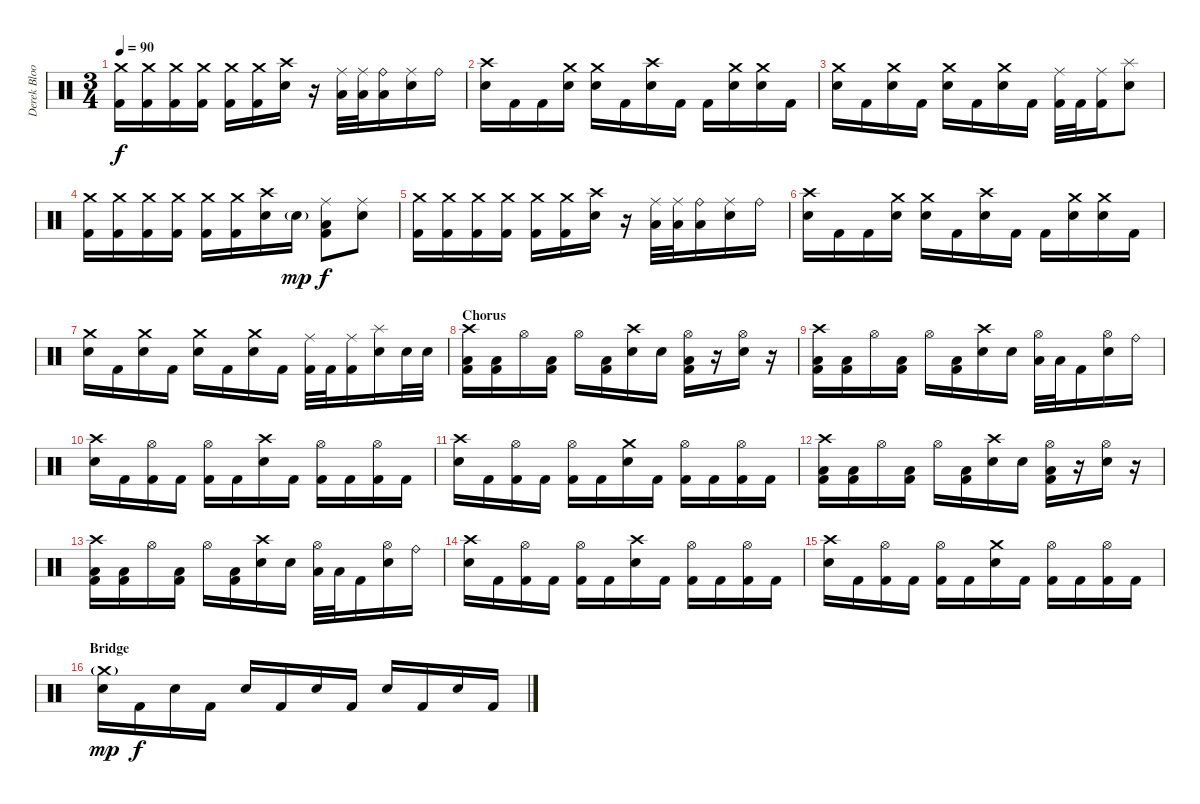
\track ("Derek Bloom (Drums)" "Derek Bloo") {instrument percussion}
\staff {score}
\articulation defaults
\ts (3 4)
\tempo 90
\clef neutral
\ks c
("Crash medium (hit)" "Kick (hit) 2").16{dy f} ("Crash medium (hit)" "Kick (hit) 2").16 ("Crash medium (hit)" "Kick (hit) 2").16 ("Crash medium (hit)" "Kick (hit) 2").16 ("Crash medium (hit)" "Kick (hit) 2").16 ("Crash medium (hit)" "Kick (hit) 2").16 ("Crash high (hit)" "Electric Snare (hit)").16 r.16 ("Ride (middle)" "Low Tom (hit)").32 ("Ride (middle)" "Low Tom (hit)").32 ("Ride (bell)" "Low Tom (hit)").16 ("Ride (middle)" "Electric Snare (hit)").16 "Ride (bell)".16 |
("Crash high (hit)" "Electric Snare (hit)").16 "Kick (hit) 2".16 "Kick (hit) 2".16 ("Crash medium (hit)" "Electric Snare (hit)").16 ("Crash medium (hit)" "Electric Snare (hit)").16 "Kick (hit) 2".16 ("Crash high (hit)" "Electric Snare (hit)").16 "Kick (hit) 2".16 "Kick (hit) 2".16 ("Crash medium (hit)" "Electric Snare (hit)").16 ("Crash medium (hit)" "Electric Snare (hit)").16 "Kick (hit) 2".16 |
("Crash medium (hit)" "Electric Snare (hit)").16 "Kick (hit) 2".16 ("Crash medium (hit)" "Electric Snare (hit)").16 "Kick (hit) 2".16 ("Crash medium (hit)" "Electric Snare (hit)").16 "Kick (hit) 2".16 ("Crash medium (hit)" "Electric Snare (hit)").16 "Kick (hit) 2".16 ("Ride (middle)" "Kick (hit) 2").32 "Kick (hit) 2".32 ("Ride (middle)" "Kick (hit) 2").16 ("Splash (hit)" "Electric Snare (hit)").8 |
("Crash medium (hit)" "Kick (hit) 2").16 ("Crash medium (hit)" "Kick (hit) 2").16 ("Crash medium (hit)" "Kick (hit) 2").16 ("Crash medium (hit)" "Kick (hit) 2").16 ("Crash medium (hit)" "Kick (hit) 2").16 ("Crash medium (hit)" "Kick (hit) 2").16 ("Crash high (hit)" "Electric Snare (hit)").16 "Electric Snare (hit)"{g}.16{dy mp} ("Ride (middle)" "Low Floor Tom (hit)" "Kick (hit) 2").8{dy f} ("Ride (middle)" "Electric Snare (hit)").8 |
("Crash medium (hit)" "Kick (hit) 2").16 ("Crash medium (hit)" "Kick (hit) 2").16 ("Crash medium (hit)" "Kick (hit) 2").16 ("Crash medium (hit)" "Kick (hit) 2").16 ("Crash medium (hit)" "Kick (hit) 2").16 ("Crash medium (hit)" "Kick (hit) 2").16 ("Crash high (hit)" "Electric Snare (hit)").16 r.16 ("Ride (middle)" "Low Tom (hit)").32 ("Ride (middle)" "Low Tom (hit)").32 ("Ride (bell)" "Low Tom (hit)").16 ("Ride (middle)" "Electric Snare (hit)").16 "Ride (bell)".16 |
("Crash high (hit)" "Electric Snare (hit)").16 "Kick (hit) 2".16 "Kick (hit) 2".16 ("Crash medium (hit)" "Electric Snare (hit)").16 ("Crash medium (hit)" "Electric Snare (hit)").16 "Kick (hit) 2".16 ("Crash high (hit)" "Electric Snare (hit)").16 "Kick (hit) 2".16 "Kick (hit) 2".16 ("Crash medium (hit)" "Electric Snare (hit)").16 ("Crash medium (hit)" "Electric Snare (hit)").16 "Kick (hit) 2".16 |
("Crash medium (hit)" "Electric Snare (hit)").16 "Kick (hit) 2".16 ("Crash medium (hit)" "Electric Snare (hit)").16 "Kick (hit) 2".16 ("Crash medium (hit)" "Electric Snare (hit)").16 "Kick (hit) 2".16 ("Crash medium (hit)" "Electric Snare (hit)").16 "Kick (hit) 2".16 ("Ride (middle)" "Kick (hit) 2").32 "Kick (hit) 2".32 ("Ride (middle)" "Kick (hit) 2").16 ("Splash (hit)" "Electric Snare (hit)").16 "Electric Snare (hit)".32 "Electric Snare (hit)".32 |
\section ("" "Chorus")
("Crash high (hit)" "Low Floor Tom (hit)" "Kick (hit) 2").16 ("Low Floor Tom (hit)" "Kick (hit) 2").16 "Hi-Hat (open)".16 ("Low Floor Tom (hit)" "Kick (hit) 2").16 "Hi-Hat (open)".16 ("Low Floor Tom (hit)" "Kick (hit) 2").16 ("Crash high (hit)" "Electric Snare (hit)").16 "Electric Snare (hit)".16 ("Hi-Hat (open)" "Low Floor Tom (hit)" "Kick (hit) 2").16 r.16 ("Hi-Hat (open)" "Electric Snare (hit)").16 r.16 |
("Crash high (hit)" "Low Floor Tom (hit)" "Kick (hit) 2").16 ("Low Floor Tom (hit)" "Kick (hit) 2").16 "Hi-Hat (open)".16 ("Low Floor Tom (hit)" "Kick (hit) 2").16 "Hi-Hat (open)".16 ("Low Floor Tom (hit)" "Kick (hit) 2").16 ("Crash high (hit)" "Electric Snare (hit)").16 "Electric Snare (hit)".16 ("Hi-Hat (open)" "Low Tom (hit)").32 "Low Tom (hit)".32 "Kick (hit) 2".16 ("Hi-Hat (open)" "Electric Snare (hit)").16 "Ride (bell)".16 |
("Crash high (hit)" "Electric Snare (hit)").16 "Kick (hit) 2".16 ("Hi-Hat (open)" "Kick (hit) 2").16 "Kick (hit) 2".16 ("Hi-Hat (open)" "Kick (hit) 2").16 "Kick (hit) 2".16 ("Crash high (hit)" "Electric Snare (hit)").16 "Kick (hit) 2".16 ("Hi-Hat (open)" "Kick (hit) 2").16 "Kick (hit) 2".16 ("Hi-Hat (open)" "Kick (hit) 2").16 "Kick (hit) 2".16 |
("Crash high (hit)" "Electric Snare (hit)").16 "Kick (hit) 2".16 ("Hi-Hat (open)" "Kick (hit) 2").16 "Kick (hit) 2".16 ("Hi-Hat (open)" "Kick (hit) 2").16 "Kick (hit) 2".16 ("Crash medium (hit)" "Electric Snare (hit)").16 "Kick (hit) 2".16 ("Hi-Hat (open)" "Kick (hit) 2").16 "Kick (hit) 2".16 ("Hi-Hat (open)" "Kick (hit) 2").16 "Kick (hit) 2".16 |
("Crash high (hit)" "Low Floor Tom (hit)" "Kick (hit) 2").16 ("Low Floor Tom (hit)" "Kick (hit) 2").16 "Hi-Hat (open)".16 ("Low Floor Tom (hit)" "Kick (hit) 2").16 "Hi-Hat (open)".16 ("Low Floor Tom (hit)" "Kick (hit) 2").16 ("Crash high (hit)" "Electric Snare (hit)").16 "Electric Snare (hit)".16 ("Hi-Hat (open)" "Low Floor Tom (hit)" "Kick (hit) 2").16 r.16 ("Hi-Hat (open)" "Electric Snare (hit)").16 r.16 |
("Crash high (hit)" "Low Floor Tom (hit)" "Kick (hit) 2").16 ("Low Floor Tom (hit)" "Kick (hit) 2").16 "Hi-Hat (open)".16 ("Low Floor Tom (hit)" "Kick (hit) 2").16 "Hi-Hat (open)".16 ("Low Floor Tom (hit)" "Kick (hit) 2").16 ("Crash high (hit)" "Electric Snare (hit)").16 "Electric Snare (hit)".16 ("Hi-Hat (open)" "Low Tom (hit)").32 "Low Tom (hit)".32 "Kick (hit) 2".16 ("Hi-Hat (open)" "Electric Snare (hit)").16 "Ride (bell)".16 |
("Crash high (hit)" "Electric Snare (hit)").16 "Kick (hit) 2".16 ("Hi-Hat (open)" "Kick (hit) 2").16 "Kick (hit) 2".16 ("Hi-Hat (open)" "Kick (hit) 2").16 "Kick (hit) 2".16 ("Crash high (hit)" "Electric Snare (hit)").16 "Kick (hit) 2".16 ("Hi-Hat (open)" "Kick (hit) 2").16 "Kick (hit) 2".16 ("Hi-Hat (open)" "Kick (hit) 2").16 "Kick (hit) 2".16 |
("Crash high (hit)" "Electric Snare (hit)").16 "Kick (hit) 2".16 ("Hi-Hat (open)" "Kick (hit) 2").16 "Kick (hit) 2".16 ("Hi-Hat (open)" "Kick (hit) 2").16 "Kick (hit) 2".16 ("Crash medium (hit)" "Electric Snare (hit)").16 "Kick (hit) 2".16 ("Hi-Hat (open)" "Kick (hit) 2").16 "Kick (hit) 2".16 ("Hi-Hat (open)" "Kick (hit) 2").16 "Kick (hit) 2".16 |
\section ("" "Bridge")
("Crash medium (hit)"{g} "Electric Snare (hit)").16{dy mp} "Kick (hit) 2".16{dy f} "Electric Snare (hit)".16 "Kick (hit) 2".16 "Electric Snare (hit)".16 "Kick (hit) 2".16 "Electric Snare (hit)".16 "Kick (hit) 2".16 "Electric Snare (hit)".16 "Kick (hit) 2".16 "Electric Snare (hit)".16 "Kick (hit) 2".16
